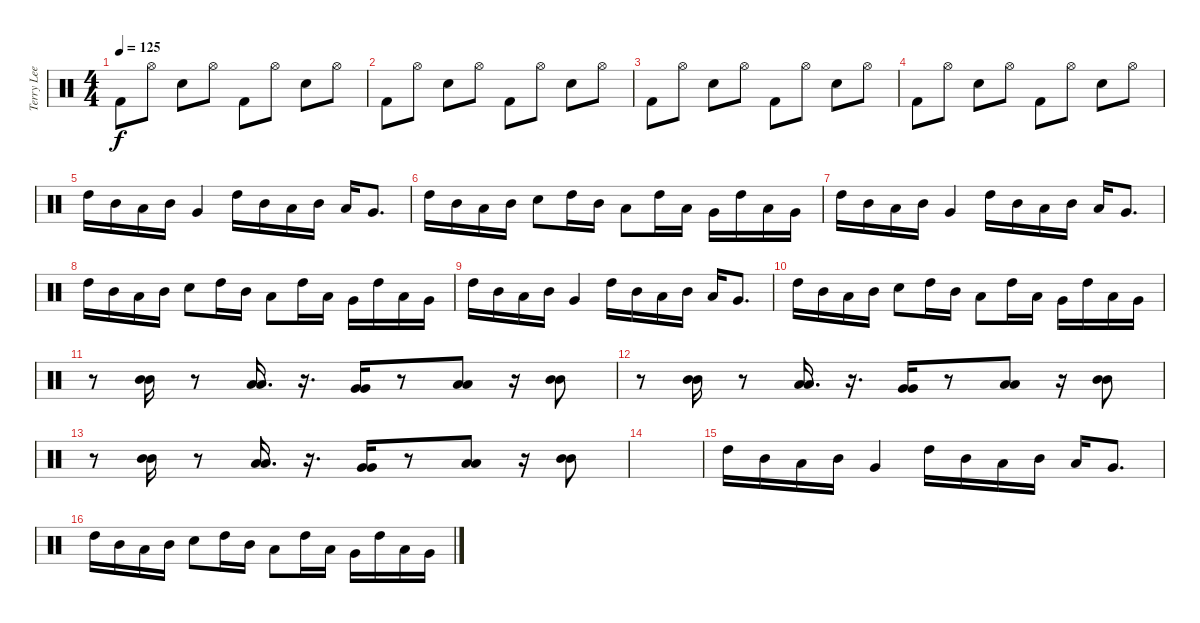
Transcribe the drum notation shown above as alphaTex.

\track ("Terry Lee Miall" "Terry Lee ") {instrument percussion}
\staff {score}
\articulation defaults
\ts (4 4)
\tempo 125
\clef neutral
\ks c "Kick (hit) 2".8{dy f} "Hi-Hat (open)".8 "Electric Snare (hit)".8 "Hi-Hat (open)".8 "Kick (hit) 2".8 "Hi-Hat (open)".8 "Electric Snare (hit)".8 "Hi-Hat (open)".8
|
"Kick (hit) 2".8 "Hi-Hat (open)".8 "Electric Snare (hit)".8 "Hi-Hat (open)".8 "Kick (hit) 2".8 "Hi-Hat (open)".8 "Electric Snare (hit)".8 "Hi-Hat (open)".8 |
"Kick (hit) 2".8 "Hi-Hat (open)".8 "Electric Snare (hit)".8 "Hi-Hat (open)".8 "Kick (hit) 2".8 "Hi-Hat (open)".8 "Electric Snare (hit)".8 "Hi-Hat (open)".8 |
"Kick (hit) 2".8 "Hi-Hat (open)".8 "Electric Snare (hit)".8 "Hi-Hat (open)".8 "Kick (hit) 2".8 "Hi-Hat (open)".8 "Electric Snare (hit)".8 "Hi-Hat (open)".8 |
"High Tom (hit)".16 "Mid Tom (hit)".16 "Low Tom (hit)".16 "Mid Tom (hit)".16 "Very Low Tom (hit)".4 "High Tom (hit)".16 "Mid Tom (hit)".16 "Low Tom (hit)".16 "Mid Tom (hit)".16 "Low Tom (hit)".16 "Very Low Tom (hit)".8{d} |
"High Tom (hit)".16 "Mid Tom (hit)".16 "Low Tom (hit)".16 "Mid Tom (hit)".16 "Electric Snare (hit)".8 "High Tom (hit)".16 "Mid Tom (hit)".16 "Low Tom (hit)".8 "High Tom (hit)".16 "Low Tom (hit)".16 "Very Low Tom (hit)".16 "High Tom (hit)".16 "Low Tom (hit)".16 "Very Low Tom (hit)".16 |
"High Tom (hit)".16 "Mid Tom (hit)".16 "Low Tom (hit)".16 "Mid Tom (hit)".16 "Very Low Tom (hit)".4 "High Tom (hit)".16 "Mid Tom (hit)".16 "Low Tom (hit)".16 "Mid Tom (hit)".16 "Low Tom (hit)".16 "Very Low Tom (hit)".8{d} |
"High Tom (hit)".16 "Mid Tom (hit)".16 "Low Tom (hit)".16 "Mid Tom (hit)".16 "Electric Snare (hit)".8 "High Tom (hit)".16 "Mid Tom (hit)".16 "Low Tom (hit)".8 "High Tom (hit)".16 "Low Tom (hit)".16 "Very Low Tom (hit)".16 "High Tom (hit)".16 "Low Tom (hit)".16 "Very Low Tom (hit)".16 |
"High Tom (hit)".16 "Mid Tom (hit)".16 "Low Tom (hit)".16 "Mid Tom (hit)".16 "Very Low Tom (hit)".4 "High Tom (hit)".16 "Mid Tom (hit)".16 "Low Tom (hit)".16 "Mid Tom (hit)".16 "Low Tom (hit)".16 "Very Low Tom (hit)".8{d} |
"High Tom (hit)".16 "Mid Tom (hit)".16 "Low Tom (hit)".16 "Mid Tom (hit)".16 "Electric Snare (hit)".8 "High Tom (hit)".16 "Mid Tom (hit)".16 "Low Tom (hit)".8 "High Tom (hit)".16 "Low Tom (hit)".16 "Very Low Tom (hit)".16 "High Tom (hit)".16 "Low Tom (hit)".16 "Very Low Tom (hit)".16 |
r.8 ("Mid Tom (hit)" "Mid Tom (hit)").16 r.8 ("Low Tom (hit)" "Low Tom (hit)").16{d} r.16{d} ("Very Low Tom (hit)" "Very Low Tom (hit)").16 r.8 ("Low Tom (hit)" "Low Tom (hit)").8 r.16 ("Mid Tom (hit)" "Mid Tom (hit)").8 |
r.8 ("Mid Tom (hit)" "Mid Tom (hit)").16 r.8 ("Low Tom (hit)" "Low Tom (hit)").16{d} r.16{d} ("Very Low Tom (hit)" "Very Low Tom (hit)").16 r.8 ("Low Tom (hit)" "Low Tom (hit)").8 r.16 ("Mid Tom (hit)" "Mid Tom (hit)").8 |
r.8 ("Mid Tom (hit)" "Mid Tom (hit)").16 r.8 ("Low Tom (hit)" "Low Tom (hit)").16{d} r.16{d} ("Very Low Tom (hit)" "Very Low Tom (hit)").16 r.8 ("Low Tom (hit)" "Low Tom (hit)").8 r.16 ("Mid Tom (hit)" "Mid Tom (hit)").8 |
|
"High Tom (hit)".16 "Mid Tom (hit)".16 "Low Tom (hit)".16 "Mid Tom (hit)".16 "Very Low Tom (hit)".4 "High Tom (hit)".16 "Mid Tom (hit)".16 "Low Tom (hit)".16 "Mid Tom (hit)".16 "Low Tom (hit)".16 "Very Low Tom (hit)".8{d} |
"High Tom (hit)".16 "Mid Tom (hit)".16 "Low Tom (hit)".16 "Mid Tom (hit)".16 "Electric Snare (hit)".8 "High Tom (hit)".16 "Mid Tom (hit)".16 "Low Tom (hit)".8 "High Tom (hit)".16 "Low Tom (hit)".16 "Very Low Tom (hit)".16 "High Tom (hit)".16 "Low Tom (hit)".16 "Very Low Tom (hit)".16
